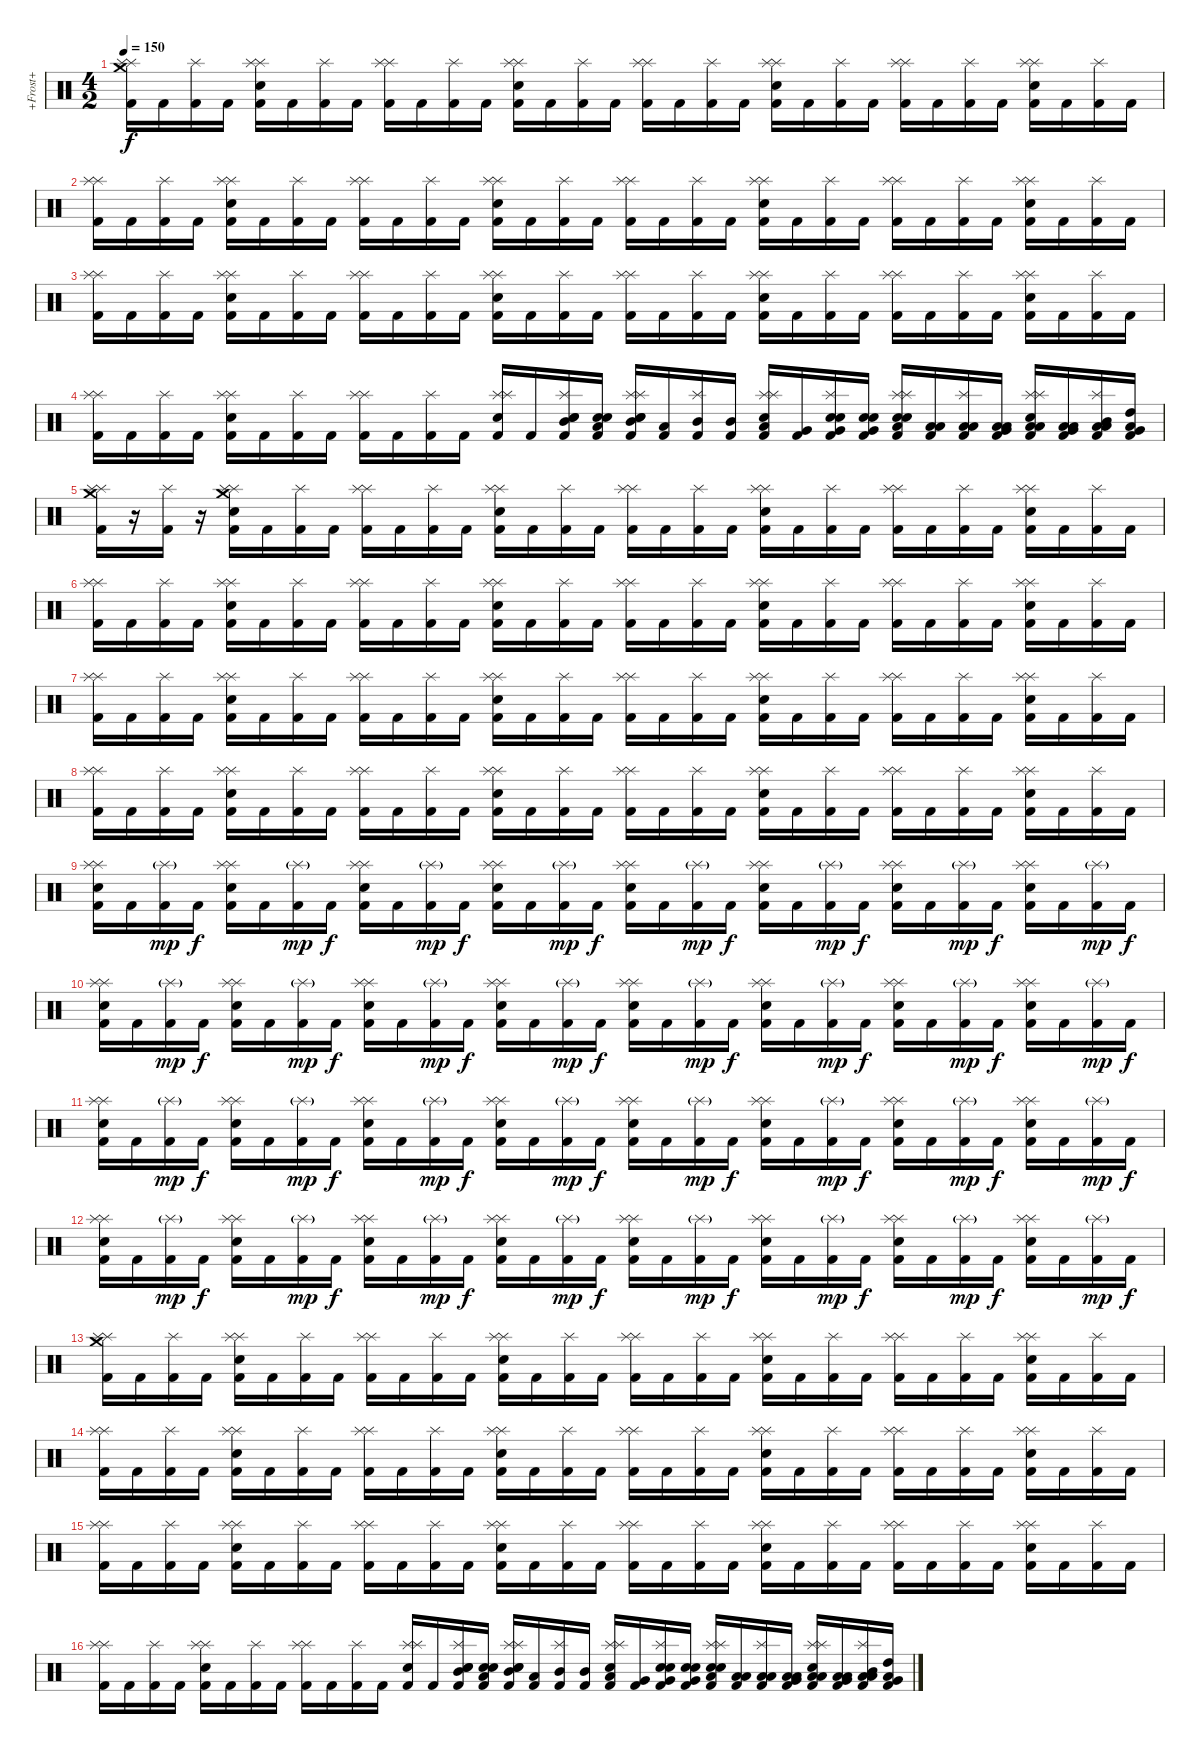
\track ("+Frost+" "+Frost+") {instrument percussion}
\staff {score}
\articulation defaults
\ts (4 2)
\tempo 150
\clef neutral
\ks c
("Kick (hit) 2" "Splash (hit)" "Splash (hit)" "Crash medium (hit)").16{dy f} "Kick (hit) 2".16 ("Kick (hit) 2" "Splash (hit)").16 "Kick (hit) 2".16 ("Kick (hit) 2" "Splash (hit)" "Splash (hit)" "Electric Snare (hit)").16 "Kick (hit) 2".16 ("Kick (hit) 2" "Splash (hit)").16 "Kick (hit) 2".16 ("Kick (hit) 2" "Splash (hit)" "Splash (hit)").16 "Kick (hit) 2".16 ("Kick (hit) 2" "Splash (hit)").16 "Kick (hit) 2".16 ("Kick (hit) 2" "Splash (hit)" "Splash (hit)" "Electric Snare (hit)").16 "Kick (hit) 2".16 ("Kick (hit) 2" "Splash (hit)").16 "Kick (hit) 2".16 ("Kick (hit) 2" "Splash (hit)" "Splash (hit)").16 "Kick (hit) 2".16 ("Kick (hit) 2" "Splash (hit)").16 "Kick (hit) 2".16 ("Kick (hit) 2" "Splash (hit)" "Splash (hit)" "Electric Snare (hit)").16 "Kick (hit) 2".16 ("Kick (hit) 2" "Splash (hit)").16 "Kick (hit) 2".16 ("Kick (hit) 2" "Splash (hit)" "Splash (hit)").16 "Kick (hit) 2".16 ("Kick (hit) 2" "Splash (hit)").16 "Kick (hit) 2".16 ("Kick (hit) 2" "Splash (hit)" "Splash (hit)" "Electric Snare (hit)").16 "Kick (hit) 2".16 ("Kick (hit) 2" "Splash (hit)").16 "Kick (hit) 2".16 |
("Kick (hit) 2" "Splash (hit)" "Splash (hit)").16 "Kick (hit) 2".16 ("Kick (hit) 2" "Splash (hit)").16 "Kick (hit) 2".16 ("Kick (hit) 2" "Splash (hit)" "Splash (hit)" "Electric Snare (hit)").16 "Kick (hit) 2".16 ("Kick (hit) 2" "Splash (hit)").16 "Kick (hit) 2".16 ("Kick (hit) 2" "Splash (hit)" "Splash (hit)").16 "Kick (hit) 2".16 ("Kick (hit) 2" "Splash (hit)").16 "Kick (hit) 2".16 ("Kick (hit) 2" "Splash (hit)" "Splash (hit)" "Electric Snare (hit)").16 "Kick (hit) 2".16 ("Kick (hit) 2" "Splash (hit)").16 "Kick (hit) 2".16 ("Kick (hit) 2" "Splash (hit)" "Splash (hit)").16 "Kick (hit) 2".16 ("Kick (hit) 2" "Splash (hit)").16 "Kick (hit) 2".16 ("Kick (hit) 2" "Splash (hit)" "Splash (hit)" "Electric Snare (hit)").16 "Kick (hit) 2".16 ("Kick (hit) 2" "Splash (hit)").16 "Kick (hit) 2".16 ("Kick (hit) 2" "Splash (hit)" "Splash (hit)").16 "Kick (hit) 2".16 ("Kick (hit) 2" "Splash (hit)").16 "Kick (hit) 2".16 ("Kick (hit) 2" "Splash (hit)" "Splash (hit)" "Electric Snare (hit)").16 "Kick (hit) 2".16 ("Kick (hit) 2" "Splash (hit)").16 "Kick (hit) 2".16 |
("Kick (hit) 2" "Splash (hit)" "Splash (hit)").16 "Kick (hit) 2".16 ("Kick (hit) 2" "Splash (hit)").16 "Kick (hit) 2".16 ("Kick (hit) 2" "Splash (hit)" "Splash (hit)" "Electric Snare (hit)").16 "Kick (hit) 2".16 ("Kick (hit) 2" "Splash (hit)").16 "Kick (hit) 2".16 ("Kick (hit) 2" "Splash (hit)" "Splash (hit)").16 "Kick (hit) 2".16 ("Kick (hit) 2" "Splash (hit)").16 "Kick (hit) 2".16 ("Kick (hit) 2" "Splash (hit)" "Splash (hit)" "Electric Snare (hit)").16 "Kick (hit) 2".16 ("Kick (hit) 2" "Splash (hit)").16 "Kick (hit) 2".16 ("Kick (hit) 2" "Splash (hit)" "Splash (hit)").16 "Kick (hit) 2".16 ("Kick (hit) 2" "Splash (hit)").16 "Kick (hit) 2".16 ("Kick (hit) 2" "Splash (hit)" "Splash (hit)" "Electric Snare (hit)").16 "Kick (hit) 2".16 ("Kick (hit) 2" "Splash (hit)").16 "Kick (hit) 2".16 ("Kick (hit) 2" "Splash (hit)" "Splash (hit)").16 "Kick (hit) 2".16 ("Kick (hit) 2" "Splash (hit)").16 "Kick (hit) 2".16 ("Kick (hit) 2" "Splash (hit)" "Splash (hit)" "Electric Snare (hit)").16 "Kick (hit) 2".16 ("Kick (hit) 2" "Splash (hit)").16 "Kick (hit) 2".16 |
("Kick (hit) 2" "Splash (hit)" "Splash (hit)").16 "Kick (hit) 2".16 ("Kick (hit) 2" "Splash (hit)").16 "Kick (hit) 2".16 ("Kick (hit) 2" "Splash (hit)" "Splash (hit)" "Electric Snare (hit)").16 "Kick (hit) 2".16 ("Kick (hit) 2" "Splash (hit)").16 "Kick (hit) 2".16 ("Kick (hit) 2" "Splash (hit)" "Splash (hit)").16 "Kick (hit) 2".16 ("Kick (hit) 2" "Splash (hit)").16 "Kick (hit) 2".16 ("Kick (hit) 2" "Splash (hit)" "Splash (hit)" "Electric Snare (hit)").16 "Kick (hit) 2".16 ("Kick (hit) 2" "Splash (hit)" "Mid Tom (hit)" "Electric Snare (hit)" "Electric Snare (hit)").16 ("Kick (hit) 2" "Low Tom (hit)" "Electric Snare (hit)" "Electric Snare (hit)").16 ("Kick (hit) 2" "Splash (hit)" "Splash (hit)" "Mid Tom (hit)" "Electric Snare (hit)" "Electric Snare (hit)").16 ("Kick (hit) 2" "Low Tom (hit)").16 ("Kick (hit) 2" "Splash (hit)" "Mid Tom (hit)").16 ("Kick (hit) 2" "Mid Tom (hit)").16 ("Kick (hit) 2" "Splash (hit)" "Splash (hit)" "Low Tom (hit)" "Electric Snare (hit)").16 ("Kick (hit) 2" "Very Low Tom (hit)").16 ("Kick (hit) 2" "Splash (hit)" "Very Low Tom (hit)" "Electric Snare (hit)" "Electric Snare (hit)").16 ("Kick (hit) 2" "Very Low Tom (hit)" "Electric Snare (hit)" "Electric Snare (hit)").16 ("Kick (hit) 2" "Splash (hit)" "Splash (hit)" "Low Floor Tom (hit)" "Electric Snare (hit)" "Electric Snare (hit)").16 ("Kick (hit) 2" "Low Floor Tom (hit)" "Low Floor Tom (hit)").16 ("Kick (hit) 2" "Splash (hit)" "Low Floor Tom (hit)" "Low Floor Tom (hit)").16 ("Kick (hit) 2" "Very Low Tom (hit)" "Low Tom (hit)" "Low Floor Tom (hit)").16 ("Kick (hit) 2" "Splash (hit)" "Splash (hit)" "Low Floor Tom (hit)" "Electric Snare (hit)" "Low Floor Tom (hit)").16 ("Kick (hit) 2" "Low Tom (hit)" "Very Low Tom (hit)" "Low Floor Tom (hit)").16 ("Kick (hit) 2" "Splash (hit)" "Mid Tom (hit)" "Low Tom (hit)" "Low Floor Tom (hit)").16 ("Kick (hit) 2" "High Tom (hit)" "Very Low Tom (hit)" "Low Floor Tom (hit)").16 |
("Kick (hit) 2" "Splash (hit)" "Splash (hit)" "Crash medium (hit)").16 r.16 ("Kick (hit) 2" "Splash (hit)").16 r.16 ("Kick (hit) 2" "Splash (hit)" "Splash (hit)" "Crash medium (hit)" "Electric Snare (hit)").16 "Kick (hit) 2".16 ("Kick (hit) 2" "Splash (hit)").16 "Kick (hit) 2".16 ("Kick (hit) 2" "Splash (hit)" "Splash (hit)").16 "Kick (hit) 2".16 ("Kick (hit) 2" "Splash (hit)").16 "Kick (hit) 2".16 ("Kick (hit) 2" "Splash (hit)" "Splash (hit)" "Electric Snare (hit)").16 "Kick (hit) 2".16 ("Kick (hit) 2" "Splash (hit)").16 "Kick (hit) 2".16 ("Kick (hit) 2" "Splash (hit)" "Splash (hit)").16 "Kick (hit) 2".16 ("Kick (hit) 2" "Splash (hit)").16 "Kick (hit) 2".16 ("Kick (hit) 2" "Splash (hit)" "Splash (hit)" "Electric Snare (hit)").16 "Kick (hit) 2".16 ("Kick (hit) 2" "Splash (hit)").16 "Kick (hit) 2".16 ("Kick (hit) 2" "Splash (hit)" "Splash (hit)").16 "Kick (hit) 2".16 ("Kick (hit) 2" "Splash (hit)").16 "Kick (hit) 2".16 ("Kick (hit) 2" "Splash (hit)" "Splash (hit)" "Electric Snare (hit)").16 "Kick (hit) 2".16 ("Kick (hit) 2" "Splash (hit)").16 "Kick (hit) 2".16 |
("Kick (hit) 2" "Splash (hit)" "Splash (hit)").16 "Kick (hit) 2".16 ("Kick (hit) 2" "Splash (hit)").16 "Kick (hit) 2".16 ("Kick (hit) 2" "Splash (hit)" "Splash (hit)" "Electric Snare (hit)").16 "Kick (hit) 2".16 ("Kick (hit) 2" "Splash (hit)").16 "Kick (hit) 2".16 ("Kick (hit) 2" "Splash (hit)" "Splash (hit)").16 "Kick (hit) 2".16 ("Kick (hit) 2" "Splash (hit)").16 "Kick (hit) 2".16 ("Kick (hit) 2" "Splash (hit)" "Splash (hit)" "Electric Snare (hit)").16 "Kick (hit) 2".16 ("Kick (hit) 2" "Splash (hit)").16 "Kick (hit) 2".16 ("Kick (hit) 2" "Splash (hit)" "Splash (hit)").16 "Kick (hit) 2".16 ("Kick (hit) 2" "Splash (hit)").16 "Kick (hit) 2".16 ("Kick (hit) 2" "Splash (hit)" "Splash (hit)" "Electric Snare (hit)").16 "Kick (hit) 2".16 ("Kick (hit) 2" "Splash (hit)").16 "Kick (hit) 2".16 ("Kick (hit) 2" "Splash (hit)" "Splash (hit)").16 "Kick (hit) 2".16 ("Kick (hit) 2" "Splash (hit)").16 "Kick (hit) 2".16 ("Kick (hit) 2" "Splash (hit)" "Splash (hit)" "Electric Snare (hit)").16 "Kick (hit) 2".16 ("Kick (hit) 2" "Splash (hit)").16 "Kick (hit) 2".16 |
("Kick (hit) 2" "Splash (hit)" "Splash (hit)").16 "Kick (hit) 2".16 ("Kick (hit) 2" "Splash (hit)").16 "Kick (hit) 2".16 ("Kick (hit) 2" "Splash (hit)" "Splash (hit)" "Electric Snare (hit)").16 "Kick (hit) 2".16 ("Kick (hit) 2" "Splash (hit)").16 "Kick (hit) 2".16 ("Kick (hit) 2" "Splash (hit)" "Splash (hit)").16 "Kick (hit) 2".16 ("Kick (hit) 2" "Splash (hit)").16 "Kick (hit) 2".16 ("Kick (hit) 2" "Splash (hit)" "Splash (hit)" "Electric Snare (hit)").16 "Kick (hit) 2".16 ("Kick (hit) 2" "Splash (hit)").16 "Kick (hit) 2".16 ("Kick (hit) 2" "Splash (hit)" "Splash (hit)").16 "Kick (hit) 2".16 ("Kick (hit) 2" "Splash (hit)").16 "Kick (hit) 2".16 ("Kick (hit) 2" "Splash (hit)" "Splash (hit)" "Electric Snare (hit)").16 "Kick (hit) 2".16 ("Kick (hit) 2" "Splash (hit)").16 "Kick (hit) 2".16 ("Kick (hit) 2" "Splash (hit)" "Splash (hit)").16 "Kick (hit) 2".16 ("Kick (hit) 2" "Splash (hit)").16 "Kick (hit) 2".16 ("Kick (hit) 2" "Splash (hit)" "Splash (hit)" "Electric Snare (hit)").16 "Kick (hit) 2".16 ("Kick (hit) 2" "Splash (hit)").16 "Kick (hit) 2".16 |
("Kick (hit) 2" "Splash (hit)" "Splash (hit)").16 "Kick (hit) 2".16 ("Kick (hit) 2" "Splash (hit)").16 "Kick (hit) 2".16 ("Kick (hit) 2" "Splash (hit)" "Splash (hit)" "Electric Snare (hit)").16 "Kick (hit) 2".16 ("Kick (hit) 2" "Splash (hit)").16 "Kick (hit) 2".16 ("Kick (hit) 2" "Splash (hit)" "Splash (hit)").16 "Kick (hit) 2".16 ("Kick (hit) 2" "Splash (hit)").16 "Kick (hit) 2".16 ("Kick (hit) 2" "Splash (hit)" "Splash (hit)" "Electric Snare (hit)").16 "Kick (hit) 2".16 ("Kick (hit) 2" "Splash (hit)").16 "Kick (hit) 2".16 ("Kick (hit) 2" "Splash (hit)" "Splash (hit)").16 "Kick (hit) 2".16 ("Kick (hit) 2" "Splash (hit)").16 "Kick (hit) 2".16 ("Kick (hit) 2" "Splash (hit)" "Splash (hit)" "Electric Snare (hit)").16 "Kick (hit) 2".16 ("Kick (hit) 2" "Splash (hit)").16 "Kick (hit) 2".16 ("Kick (hit) 2" "Splash (hit)" "Splash (hit)").16 "Kick (hit) 2".16 ("Kick (hit) 2" "Splash (hit)").16 "Kick (hit) 2".16 ("Kick (hit) 2" "Splash (hit)" "Splash (hit)" "Electric Snare (hit)").16 "Kick (hit) 2".16 ("Kick (hit) 2" "Splash (hit)").16 "Kick (hit) 2".16 |
("Kick (hit) 2" "Splash (hit)" "Splash (hit)" "Electric Snare (hit)").16 "Kick (hit) 2".16 ("Kick (hit) 2" "Splash (hit)"{g}).16{dy mp} "Kick (hit) 2".16{dy f} ("Kick (hit) 2" "Splash (hit)" "Splash (hit)" "Electric Snare (hit)").16 "Kick (hit) 2".16 ("Kick (hit) 2" "Splash (hit)"{g}).16{dy mp} "Kick (hit) 2".16{dy f} ("Kick (hit) 2" "Splash (hit)" "Splash (hit)" "Electric Snare (hit)").16 "Kick (hit) 2".16 ("Kick (hit) 2" "Splash (hit)"{g}).16{dy mp} "Kick (hit) 2".16{dy f} ("Kick (hit) 2" "Splash (hit)" "Splash (hit)" "Electric Snare (hit)").16 "Kick (hit) 2".16 ("Kick (hit) 2" "Splash (hit)"{g}).16{dy mp} "Kick (hit) 2".16{dy f} ("Kick (hit) 2" "Splash (hit)" "Splash (hit)" "Electric Snare (hit)").16 "Kick (hit) 2".16 ("Kick (hit) 2" "Splash (hit)"{g}).16{dy mp} "Kick (hit) 2".16{dy f} ("Kick (hit) 2" "Splash (hit)" "Splash (hit)" "Electric Snare (hit)").16 "Kick (hit) 2".16 ("Kick (hit) 2" "Splash (hit)"{g}).16{dy mp} "Kick (hit) 2".16{dy f} ("Kick (hit) 2" "Splash (hit)" "Splash (hit)" "Electric Snare (hit)").16 "Kick (hit) 2".16 ("Kick (hit) 2" "Splash (hit)"{g}).16{dy mp} "Kick (hit) 2".16{dy f} ("Kick (hit) 2" "Splash (hit)" "Splash (hit)" "Electric Snare (hit)").16 "Kick (hit) 2".16 ("Kick (hit) 2" "Splash (hit)"{g}).16{dy mp} "Kick (hit) 2".16{dy f} |
("Kick (hit) 2" "Splash (hit)" "Splash (hit)" "Electric Snare (hit)").16 "Kick (hit) 2".16 ("Kick (hit) 2" "Splash (hit)"{g}).16{dy mp} "Kick (hit) 2".16{dy f} ("Kick (hit) 2" "Splash (hit)" "Splash (hit)" "Electric Snare (hit)").16 "Kick (hit) 2".16 ("Kick (hit) 2" "Splash (hit)"{g}).16{dy mp} "Kick (hit) 2".16{dy f} ("Kick (hit) 2" "Splash (hit)" "Splash (hit)" "Electric Snare (hit)").16 "Kick (hit) 2".16 ("Kick (hit) 2" "Splash (hit)"{g}).16{dy mp} "Kick (hit) 2".16{dy f} ("Kick (hit) 2" "Splash (hit)" "Splash (hit)" "Electric Snare (hit)").16 "Kick (hit) 2".16 ("Kick (hit) 2" "Splash (hit)"{g}).16{dy mp} "Kick (hit) 2".16{dy f} ("Kick (hit) 2" "Splash (hit)" "Splash (hit)" "Electric Snare (hit)").16 "Kick (hit) 2".16 ("Kick (hit) 2" "Splash (hit)"{g}).16{dy mp} "Kick (hit) 2".16{dy f} ("Kick (hit) 2" "Splash (hit)" "Splash (hit)" "Electric Snare (hit)").16 "Kick (hit) 2".16 ("Kick (hit) 2" "Splash (hit)"{g}).16{dy mp} "Kick (hit) 2".16{dy f} ("Kick (hit) 2" "Splash (hit)" "Splash (hit)" "Electric Snare (hit)").16 "Kick (hit) 2".16 ("Kick (hit) 2" "Splash (hit)"{g}).16{dy mp} "Kick (hit) 2".16{dy f} ("Kick (hit) 2" "Splash (hit)" "Splash (hit)" "Electric Snare (hit)").16 "Kick (hit) 2".16 ("Kick (hit) 2" "Splash (hit)"{g}).16{dy mp} "Kick (hit) 2".16{dy f} |
("Kick (hit) 2" "Splash (hit)" "Splash (hit)" "Electric Snare (hit)").16 "Kick (hit) 2".16 ("Kick (hit) 2" "Splash (hit)"{g}).16{dy mp} "Kick (hit) 2".16{dy f} ("Kick (hit) 2" "Splash (hit)" "Splash (hit)" "Electric Snare (hit)").16 "Kick (hit) 2".16 ("Kick (hit) 2" "Splash (hit)"{g}).16{dy mp} "Kick (hit) 2".16{dy f} ("Kick (hit) 2" "Splash (hit)" "Splash (hit)" "Electric Snare (hit)").16 "Kick (hit) 2".16 ("Kick (hit) 2" "Splash (hit)"{g}).16{dy mp} "Kick (hit) 2".16{dy f} ("Kick (hit) 2" "Splash (hit)" "Splash (hit)" "Electric Snare (hit)").16 "Kick (hit) 2".16 ("Kick (hit) 2" "Splash (hit)"{g}).16{dy mp} "Kick (hit) 2".16{dy f} ("Kick (hit) 2" "Splash (hit)" "Splash (hit)" "Electric Snare (hit)").16 "Kick (hit) 2".16 ("Kick (hit) 2" "Splash (hit)"{g}).16{dy mp} "Kick (hit) 2".16{dy f} ("Kick (hit) 2" "Splash (hit)" "Splash (hit)" "Electric Snare (hit)").16 "Kick (hit) 2".16 ("Kick (hit) 2" "Splash (hit)"{g}).16{dy mp} "Kick (hit) 2".16{dy f} ("Kick (hit) 2" "Splash (hit)" "Splash (hit)" "Electric Snare (hit)").16 "Kick (hit) 2".16 ("Kick (hit) 2" "Splash (hit)"{g}).16{dy mp} "Kick (hit) 2".16{dy f} ("Kick (hit) 2" "Splash (hit)" "Splash (hit)" "Electric Snare (hit)").16 "Kick (hit) 2".16 ("Kick (hit) 2" "Splash (hit)"{g}).16{dy mp} "Kick (hit) 2".16{dy f} |
("Kick (hit) 2" "Splash (hit)" "Splash (hit)" "Electric Snare (hit)").16 "Kick (hit) 2".16 ("Kick (hit) 2" "Splash (hit)"{g}).16{dy mp} "Kick (hit) 2".16{dy f} ("Kick (hit) 2" "Splash (hit)" "Splash (hit)" "Electric Snare (hit)").16 "Kick (hit) 2".16 ("Kick (hit) 2" "Splash (hit)"{g}).16{dy mp} "Kick (hit) 2".16{dy f} ("Kick (hit) 2" "Splash (hit)" "Splash (hit)" "Electric Snare (hit)").16 "Kick (hit) 2".16 ("Kick (hit) 2" "Splash (hit)"{g}).16{dy mp} "Kick (hit) 2".16{dy f} ("Kick (hit) 2" "Splash (hit)" "Splash (hit)" "Electric Snare (hit)").16 "Kick (hit) 2".16 ("Kick (hit) 2" "Splash (hit)"{g}).16{dy mp} "Kick (hit) 2".16{dy f} ("Kick (hit) 2" "Splash (hit)" "Splash (hit)" "Electric Snare (hit)").16 "Kick (hit) 2".16 ("Kick (hit) 2" "Splash (hit)"{g}).16{dy mp} "Kick (hit) 2".16{dy f} ("Kick (hit) 2" "Splash (hit)" "Splash (hit)" "Electric Snare (hit)").16 "Kick (hit) 2".16 ("Kick (hit) 2" "Splash (hit)"{g}).16{dy mp} "Kick (hit) 2".16{dy f} ("Kick (hit) 2" "Splash (hit)" "Splash (hit)" "Electric Snare (hit)").16 "Kick (hit) 2".16 ("Kick (hit) 2" "Splash (hit)"{g}).16{dy mp} "Kick (hit) 2".16{dy f} ("Kick (hit) 2" "Splash (hit)" "Splash (hit)" "Electric Snare (hit)").16 "Kick (hit) 2".16 ("Kick (hit) 2" "Splash (hit)"{g}).16{dy mp} "Kick (hit) 2".16{dy f} |
("Kick (hit) 2" "Splash (hit)" "Splash (hit)" "Crash medium (hit)").16 "Kick (hit) 2".16 ("Kick (hit) 2" "Splash (hit)").16 "Kick (hit) 2".16 ("Kick (hit) 2" "Splash (hit)" "Splash (hit)" "Electric Snare (hit)").16 "Kick (hit) 2".16 ("Kick (hit) 2" "Splash (hit)").16 "Kick (hit) 2".16 ("Kick (hit) 2" "Splash (hit)" "Splash (hit)").16 "Kick (hit) 2".16 ("Kick (hit) 2" "Splash (hit)").16 "Kick (hit) 2".16 ("Kick (hit) 2" "Splash (hit)" "Splash (hit)" "Electric Snare (hit)").16 "Kick (hit) 2".16 ("Kick (hit) 2" "Splash (hit)").16 "Kick (hit) 2".16 ("Kick (hit) 2" "Splash (hit)" "Splash (hit)").16 "Kick (hit) 2".16 ("Kick (hit) 2" "Splash (hit)").16 "Kick (hit) 2".16 ("Kick (hit) 2" "Splash (hit)" "Splash (hit)" "Electric Snare (hit)").16 "Kick (hit) 2".16 ("Kick (hit) 2" "Splash (hit)").16 "Kick (hit) 2".16 ("Kick (hit) 2" "Splash (hit)" "Splash (hit)").16 "Kick (hit) 2".16 ("Kick (hit) 2" "Splash (hit)").16 "Kick (hit) 2".16 ("Kick (hit) 2" "Splash (hit)" "Splash (hit)" "Electric Snare (hit)").16 "Kick (hit) 2".16 ("Kick (hit) 2" "Splash (hit)").16 "Kick (hit) 2".16 |
("Kick (hit) 2" "Splash (hit)" "Splash (hit)").16 "Kick (hit) 2".16 ("Kick (hit) 2" "Splash (hit)").16 "Kick (hit) 2".16 ("Kick (hit) 2" "Splash (hit)" "Splash (hit)" "Electric Snare (hit)").16 "Kick (hit) 2".16 ("Kick (hit) 2" "Splash (hit)").16 "Kick (hit) 2".16 ("Kick (hit) 2" "Splash (hit)" "Splash (hit)").16 "Kick (hit) 2".16 ("Kick (hit) 2" "Splash (hit)").16 "Kick (hit) 2".16 ("Kick (hit) 2" "Splash (hit)" "Splash (hit)" "Electric Snare (hit)").16 "Kick (hit) 2".16 ("Kick (hit) 2" "Splash (hit)").16 "Kick (hit) 2".16 ("Kick (hit) 2" "Splash (hit)" "Splash (hit)").16 "Kick (hit) 2".16 ("Kick (hit) 2" "Splash (hit)").16 "Kick (hit) 2".16 ("Kick (hit) 2" "Splash (hit)" "Splash (hit)" "Electric Snare (hit)").16 "Kick (hit) 2".16 ("Kick (hit) 2" "Splash (hit)").16 "Kick (hit) 2".16 ("Kick (hit) 2" "Splash (hit)" "Splash (hit)").16 "Kick (hit) 2".16 ("Kick (hit) 2" "Splash (hit)").16 "Kick (hit) 2".16 ("Kick (hit) 2" "Splash (hit)" "Splash (hit)" "Electric Snare (hit)").16 "Kick (hit) 2".16 ("Kick (hit) 2" "Splash (hit)").16 "Kick (hit) 2".16 |
("Kick (hit) 2" "Splash (hit)" "Splash (hit)").16 "Kick (hit) 2".16 ("Kick (hit) 2" "Splash (hit)").16 "Kick (hit) 2".16 ("Kick (hit) 2" "Splash (hit)" "Splash (hit)" "Electric Snare (hit)").16 "Kick (hit) 2".16 ("Kick (hit) 2" "Splash (hit)").16 "Kick (hit) 2".16 ("Kick (hit) 2" "Splash (hit)" "Splash (hit)").16 "Kick (hit) 2".16 ("Kick (hit) 2" "Splash (hit)").16 "Kick (hit) 2".16 ("Kick (hit) 2" "Splash (hit)" "Splash (hit)" "Electric Snare (hit)").16 "Kick (hit) 2".16 ("Kick (hit) 2" "Splash (hit)").16 "Kick (hit) 2".16 ("Kick (hit) 2" "Splash (hit)" "Splash (hit)").16 "Kick (hit) 2".16 ("Kick (hit) 2" "Splash (hit)").16 "Kick (hit) 2".16 ("Kick (hit) 2" "Splash (hit)" "Splash (hit)" "Electric Snare (hit)").16 "Kick (hit) 2".16 ("Kick (hit) 2" "Splash (hit)").16 "Kick (hit) 2".16 ("Kick (hit) 2" "Splash (hit)" "Splash (hit)").16 "Kick (hit) 2".16 ("Kick (hit) 2" "Splash (hit)").16 "Kick (hit) 2".16 ("Kick (hit) 2" "Splash (hit)" "Splash (hit)" "Electric Snare (hit)").16 "Kick (hit) 2".16 ("Kick (hit) 2" "Splash (hit)").16 "Kick (hit) 2".16 |
("Kick (hit) 2" "Splash (hit)" "Splash (hit)").16 "Kick (hit) 2".16 ("Kick (hit) 2" "Splash (hit)").16 "Kick (hit) 2".16 ("Kick (hit) 2" "Splash (hit)" "Splash (hit)" "Electric Snare (hit)").16 "Kick (hit) 2".16 ("Kick (hit) 2" "Splash (hit)").16 "Kick (hit) 2".16 ("Kick (hit) 2" "Splash (hit)" "Splash (hit)").16 "Kick (hit) 2".16 ("Kick (hit) 2" "Splash (hit)").16 "Kick (hit) 2".16 ("Kick (hit) 2" "Splash (hit)" "Splash (hit)" "Electric Snare (hit)").16 "Kick (hit) 2".16 ("Kick (hit) 2" "Splash (hit)" "Mid Tom (hit)" "Electric Snare (hit)" "Electric Snare (hit)").16 ("Kick (hit) 2" "Low Tom (hit)" "Electric Snare (hit)" "Electric Snare (hit)").16 ("Kick (hit) 2" "Splash (hit)" "Splash (hit)" "Mid Tom (hit)" "Electric Snare (hit)" "Electric Snare (hit)").16 ("Kick (hit) 2" "Low Tom (hit)").16 ("Kick (hit) 2" "Splash (hit)" "Mid Tom (hit)").16 ("Kick (hit) 2" "Mid Tom (hit)").16 ("Kick (hit) 2" "Splash (hit)" "Splash (hit)" "Low Tom (hit)" "Electric Snare (hit)").16 ("Kick (hit) 2" "Very Low Tom (hit)").16 ("Kick (hit) 2" "Splash (hit)" "Very Low Tom (hit)" "Electric Snare (hit)" "Electric Snare (hit)").16 ("Kick (hit) 2" "Very Low Tom (hit)" "Electric Snare (hit)" "Electric Snare (hit)").16 ("Kick (hit) 2" "Splash (hit)" "Splash (hit)" "Low Floor Tom (hit)" "Electric Snare (hit)" "Electric Snare (hit)").16 ("Kick (hit) 2" "Low Floor Tom (hit)" "Low Floor Tom (hit)").16 ("Kick (hit) 2" "Splash (hit)" "Low Floor Tom (hit)" "Low Floor Tom (hit)").16 ("Kick (hit) 2" "Very Low Tom (hit)" "Low Tom (hit)" "Low Floor Tom (hit)").16 ("Kick (hit) 2" "Splash (hit)" "Splash (hit)" "Low Floor Tom (hit)" "Electric Snare (hit)" "Low Floor Tom (hit)").16 ("Kick (hit) 2" "Low Tom (hit)" "Very Low Tom (hit)" "Low Floor Tom (hit)").16 ("Kick (hit) 2" "Splash (hit)" "Mid Tom (hit)" "Low Tom (hit)" "Low Floor Tom (hit)").16 ("Kick (hit) 2" "High Tom (hit)" "Very Low Tom (hit)" "Low Floor Tom (hit)").16
